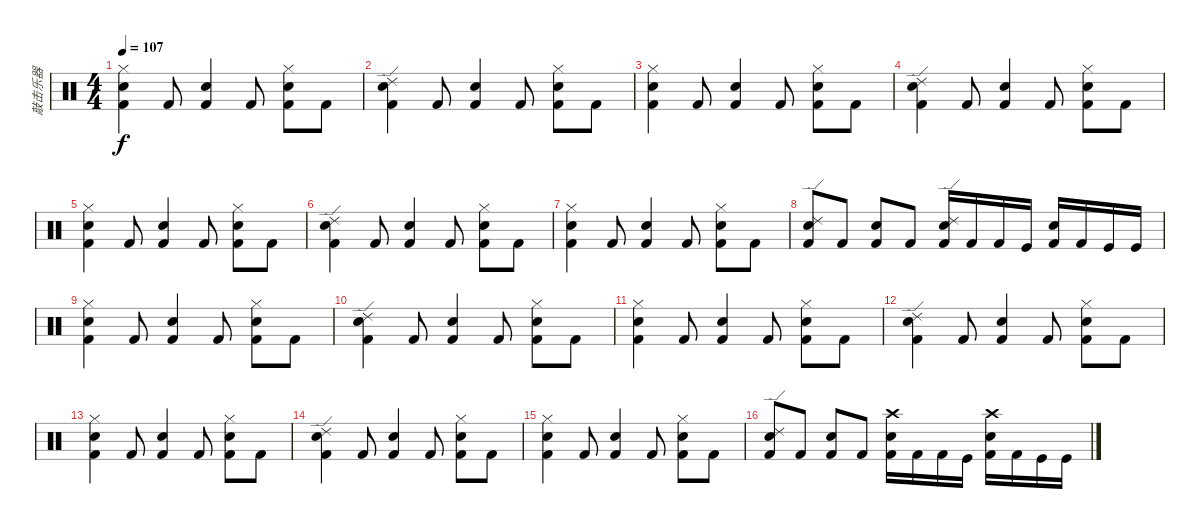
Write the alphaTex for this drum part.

\track ("敲击乐器" "敲击乐器") {instrument percussion}
\staff {score}
\articulation defaults
\ts (4 4)
\tempo 107
\clef neutral
\ks c
("Hi-Hat (closed)" "Snare (hit) 2" "Kick (hit) 2").4{dy f} "Kick (hit) 2".8 ("Snare (hit) 2" "Kick (hit) 2").4 "Kick (hit) 2".8 ("Hi-Hat (closed)" "Snare (hit) 2" "Kick (hit) 2").8 "Kick (hit) 2".8 |
("Ride (edge) 2" "Snare (hit) 2" "Kick (hit) 2").4 "Kick (hit) 2".8 ("Snare (hit) 2" "Kick (hit) 2").4 "Kick (hit) 2".8 ("Hi-Hat (closed)" "Snare (hit) 2" "Kick (hit) 2").8 "Kick (hit) 2".8 |
("Hi-Hat (closed)" "Snare (hit) 2" "Kick (hit) 2").4 "Kick (hit) 2".8 ("Snare (hit) 2" "Kick (hit) 2").4 "Kick (hit) 2".8 ("Hi-Hat (closed)" "Snare (hit) 2" "Kick (hit) 2").8 "Kick (hit) 2".8 |
("Ride (edge) 2" "Snare (hit) 2" "Kick (hit) 2").4 "Kick (hit) 2".8 ("Snare (hit) 2" "Kick (hit) 2").4 "Kick (hit) 2".8 ("Hi-Hat (closed)" "Snare (hit) 2" "Kick (hit) 2").8 "Kick (hit) 2".8 |
("Hi-Hat (closed)" "Snare (hit) 2" "Kick (hit) 2").4 "Kick (hit) 2".8 ("Snare (hit) 2" "Kick (hit) 2").4 "Kick (hit) 2".8 ("Hi-Hat (closed)" "Snare (hit) 2" "Kick (hit) 2").8 "Kick (hit) 2".8 |
("Ride (edge) 2" "Snare (hit) 2" "Kick (hit) 2").4 "Kick (hit) 2".8 ("Snare (hit) 2" "Kick (hit) 2").4 "Kick (hit) 2".8 ("Hi-Hat (closed)" "Snare (hit) 2" "Kick (hit) 2").8 "Kick (hit) 2".8 |
("Hi-Hat (closed)" "Snare (hit) 2" "Kick (hit) 2").4 "Kick (hit) 2".8 ("Snare (hit) 2" "Kick (hit) 2").4 "Kick (hit) 2".8 ("Hi-Hat (closed)" "Snare (hit) 2" "Kick (hit) 2").8 "Kick (hit) 2".8 |
("Ride (edge) 2" "Snare (hit) 2" "Kick (hit) 2").8 "Kick (hit) 2".8 ("Snare (hit) 2" "Kick (hit) 2").8 "Kick (hit) 2".8 ("Ride (edge) 2" "Snare (hit) 2" "Kick (hit) 2").16 "Kick (hit) 2".16 "Kick (hit) 2".16 "Kick (hit)".16 ("Snare (hit) 2" "Kick (hit) 2").16 "Kick (hit) 2".16 "Kick (hit)".16 "Kick (hit)".16 |
("Hi-Hat (closed)" "Snare (hit) 2" "Kick (hit) 2").4 "Kick (hit) 2".8 ("Snare (hit) 2" "Kick (hit) 2").4 "Kick (hit) 2".8 ("Hi-Hat (closed)" "Snare (hit) 2" "Kick (hit) 2").8 "Kick (hit) 2".8 |
("Ride (edge) 2" "Snare (hit) 2" "Kick (hit) 2").4 "Kick (hit) 2".8 ("Snare (hit) 2" "Kick (hit) 2").4 "Kick (hit) 2".8 ("Hi-Hat (closed)" "Snare (hit) 2" "Kick (hit) 2").8 "Kick (hit) 2".8 |
("Hi-Hat (closed)" "Snare (hit) 2" "Kick (hit) 2").4 "Kick (hit) 2".8 ("Snare (hit) 2" "Kick (hit) 2").4 "Kick (hit) 2".8 ("Hi-Hat (closed)" "Snare (hit) 2" "Kick (hit) 2").8 "Kick (hit) 2".8 |
("Ride (edge) 2" "Snare (hit) 2" "Kick (hit) 2").4 "Kick (hit) 2".8 ("Snare (hit) 2" "Kick (hit) 2").4 "Kick (hit) 2".8 ("Hi-Hat (closed)" "Snare (hit) 2" "Kick (hit) 2").8 "Kick (hit) 2".8 |
("Hi-Hat (closed)" "Snare (hit) 2" "Kick (hit) 2").4 "Kick (hit) 2".8 ("Snare (hit) 2" "Kick (hit) 2").4 "Kick (hit) 2".8 ("Hi-Hat (closed)" "Snare (hit) 2" "Kick (hit) 2").8 "Kick (hit) 2".8 |
("Ride (edge) 2" "Snare (hit) 2" "Kick (hit) 2").4 "Kick (hit) 2".8 ("Snare (hit) 2" "Kick (hit) 2").4 "Kick (hit) 2".8 ("Hi-Hat (closed)" "Snare (hit) 2" "Kick (hit) 2").8 "Kick (hit) 2".8 |
("Hi-Hat (closed)" "Snare (hit) 2" "Kick (hit) 2").4 "Kick (hit) 2".8 ("Snare (hit) 2" "Kick (hit) 2").4 "Kick (hit) 2".8 ("Hi-Hat (closed)" "Snare (hit) 2" "Kick (hit) 2").8 "Kick (hit) 2".8 |
("Ride (edge) 2" "Snare (hit) 2" "Kick (hit) 2").8 "Kick (hit) 2".8 ("Snare (hit) 2" "Kick (hit) 2").8 "Kick (hit) 2".8 ("Crash high (hit)" "Snare (hit) 2" "Kick (hit) 2").16 "Kick (hit) 2".16 "Kick (hit) 2".16 "Kick (hit)".16 ("Crash high (hit)" "Snare (hit) 2" "Kick (hit) 2").16 "Kick (hit) 2".16 "Kick (hit)".16 "Kick (hit)".16
